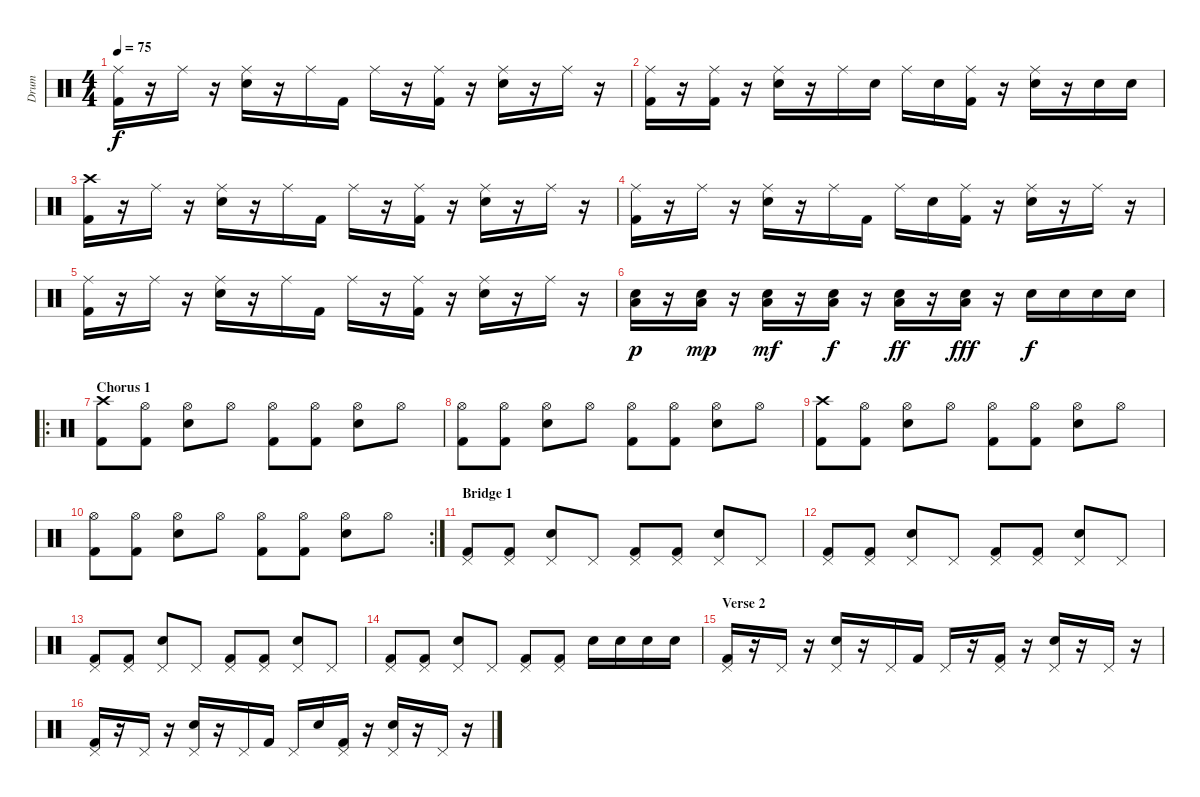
\track ("Drum" "Drum") {instrument percussion}
\staff {score}
\articulation defaults
\ts (4 4)
\tempo 75
\clef neutral
\ks c
("Ride (middle)" "Kick (hit) 2").16{dy f} r.16 "Ride (middle)".16 r.16 ("Ride (middle)" "Electric Snare (hit)").16 r.16 "Ride (middle)".16 "Kick (hit) 2".16 "Ride (middle)".16 r.16 ("Ride (middle)" "Kick (hit) 2").16 r.16 ("Ride (middle)" "Electric Snare (hit)").16 r.16 "Ride (middle)".16 r.16 |
("Ride (middle)" "Kick (hit) 2").16 r.16 ("Ride (middle)" "Kick (hit) 2").16 r.16 ("Ride (middle)" "Electric Snare (hit)").16 r.16 "Ride (middle)".16 "Electric Snare (hit)".16 "Ride (middle)".16 "Electric Snare (hit)".16 ("Ride (middle)" "Kick (hit) 2").16 r.16 ("Ride (middle)" "Electric Snare (hit)").16 r.16 "Electric Snare (hit)".16 "Electric Snare (hit)".16 |
("Crash high (hit)" "Kick (hit) 2").16 r.16 "Ride (middle)".16 r.16 ("Ride (middle)" "Electric Snare (hit)").16 r.16 "Ride (middle)".16 "Kick (hit) 2".16 "Ride (middle)".16 r.16 ("Ride (middle)" "Kick (hit) 2").16 r.16 ("Ride (middle)" "Electric Snare (hit)").16 r.16 "Ride (middle)".16 r.16 |
("Ride (middle)" "Kick (hit) 2").16 r.16 "Ride (middle)".16 r.16 ("Ride (middle)" "Electric Snare (hit)").16 r.16 "Ride (middle)".16 "Kick (hit) 2".16 "Ride (middle)".16 "Electric Snare (hit)".16 ("Ride (middle)" "Kick (hit) 2").16 r.16 ("Ride (middle)" "Electric Snare (hit)").16 r.16 "Ride (middle)".16 r.16 |
("Ride (middle)" "Kick (hit) 2").16 r.16 "Ride (middle)".16 r.16 ("Ride (middle)" "Electric Snare (hit)").16 r.16 "Ride (middle)".16 "Kick (hit) 2".16 "Ride (middle)".16 r.16 ("Ride (middle)" "Kick (hit) 2").16 r.16 ("Ride (middle)" "Electric Snare (hit)").16 r.16 "Ride (middle)".16 r.16 |
("Low Floor Tom (hit)" "Electric Snare (hit)").16{dy p} r.16 ("Low Floor Tom (hit)" "Electric Snare (hit)").16{dy mp} r.16 ("Low Floor Tom (hit)" "Electric Snare (hit)").16{dy mf} r.16 ("Low Floor Tom (hit)" "Electric Snare (hit)").16{dy f} r.16 ("Low Floor Tom (hit)" "Electric Snare (hit)").16{dy ff} r.16 ("Low Floor Tom (hit)" "Electric Snare (hit)").16{dy fff} r.16 "Electric Snare (hit)".16{dy f} "Electric Snare (hit)".16 "Electric Snare (hit)".16 "Electric Snare (hit)".16 |
\ro
\section ("" "Chorus 1")
("Crash high (hit)" "Kick (hit) 2").8 ("Hi-Hat (open)" "Kick (hit) 2").8 ("Hi-Hat (open)" "Electric Snare (hit)").8 "Hi-Hat (open)".8 ("Hi-Hat (open)" "Kick (hit) 2").8 ("Hi-Hat (open)" "Kick (hit) 2").8 ("Hi-Hat (open)" "Electric Snare (hit)").8 "Hi-Hat (open)".8 |
("Hi-Hat (open)" "Kick (hit) 2").8 ("Hi-Hat (open)" "Kick (hit) 2").8 ("Hi-Hat (open)" "Electric Snare (hit)").8 "Hi-Hat (open)".8 ("Hi-Hat (open)" "Kick (hit) 2").8 ("Hi-Hat (open)" "Kick (hit) 2").8 ("Hi-Hat (open)" "Electric Snare (hit)").8 "Hi-Hat (open)".8 |
("Crash high (hit)" "Kick (hit) 2").8 ("Hi-Hat (open)" "Kick (hit) 2").8 ("Hi-Hat (open)" "Electric Snare (hit)").8 "Hi-Hat (open)".8 ("Hi-Hat (open)" "Kick (hit) 2").8 ("Hi-Hat (open)" "Kick (hit) 2").8 ("Hi-Hat (open)" "Electric Snare (hit)").8 "Hi-Hat (open)".8 |
\rc 2
("Hi-Hat (open)" "Kick (hit) 2").8 ("Hi-Hat (open)" "Kick (hit) 2").8 ("Hi-Hat (open)" "Electric Snare (hit)").8 "Hi-Hat (open)".8 ("Hi-Hat (open)" "Kick (hit) 2").8 ("Hi-Hat (open)" "Kick (hit) 2").8 ("Hi-Hat (open)" "Electric Snare (hit)").8 "Hi-Hat (open)".8 |
\section ("" "Bridge 1")
("Pedal Hi-Hat (hit)" "Kick (hit) 2").8 ("Pedal Hi-Hat (hit)" "Kick (hit) 2").8 ("Pedal Hi-Hat (hit)" "Electric Snare (hit)").8 "Pedal Hi-Hat (hit)".8 ("Pedal Hi-Hat (hit)" "Kick (hit) 2").8 ("Pedal Hi-Hat (hit)" "Kick (hit) 2").8 ("Pedal Hi-Hat (hit)" "Electric Snare (hit)").8 "Pedal Hi-Hat (hit)".8 |
("Pedal Hi-Hat (hit)" "Kick (hit) 2").8 ("Pedal Hi-Hat (hit)" "Kick (hit) 2").8 ("Pedal Hi-Hat (hit)" "Electric Snare (hit)").8 "Pedal Hi-Hat (hit)".8 ("Pedal Hi-Hat (hit)" "Kick (hit) 2").8 ("Pedal Hi-Hat (hit)" "Kick (hit) 2").8 ("Pedal Hi-Hat (hit)" "Electric Snare (hit)").8 "Pedal Hi-Hat (hit)".8 |
("Pedal Hi-Hat (hit)" "Kick (hit) 2").8 ("Pedal Hi-Hat (hit)" "Kick (hit) 2").8 ("Pedal Hi-Hat (hit)" "Electric Snare (hit)").8 "Pedal Hi-Hat (hit)".8 ("Pedal Hi-Hat (hit)" "Kick (hit) 2").8 ("Pedal Hi-Hat (hit)" "Kick (hit) 2").8 ("Pedal Hi-Hat (hit)" "Electric Snare (hit)").8 "Pedal Hi-Hat (hit)".8 |
("Pedal Hi-Hat (hit)" "Kick (hit) 2").8 ("Pedal Hi-Hat (hit)" "Kick (hit) 2").8 ("Pedal Hi-Hat (hit)" "Electric Snare (hit)").8 "Pedal Hi-Hat (hit)".8 ("Pedal Hi-Hat (hit)" "Kick (hit) 2").8 ("Pedal Hi-Hat (hit)" "Kick (hit) 2").8 "Electric Snare (hit)".16 "Electric Snare (hit)".16 "Electric Snare (hit)".16 "Electric Snare (hit)".16 |
\section ("" "Verse 2")
("Pedal Hi-Hat (hit)" "Kick (hit) 2").16 r.16 "Pedal Hi-Hat (hit)".16 r.16 ("Pedal Hi-Hat (hit)" "Electric Snare (hit)").16 r.16 "Pedal Hi-Hat (hit)".16 "Kick (hit) 2".16 "Pedal Hi-Hat (hit)".16 r.16 ("Pedal Hi-Hat (hit)" "Kick (hit) 2").16 r.16 ("Pedal Hi-Hat (hit)" "Electric Snare (hit)").16 r.16 "Pedal Hi-Hat (hit)".16 r.16 |
("Pedal Hi-Hat (hit)" "Kick (hit) 2").16 r.16 "Pedal Hi-Hat (hit)".16 r.16 ("Pedal Hi-Hat (hit)" "Electric Snare (hit)").16 r.16 "Pedal Hi-Hat (hit)".16 "Kick (hit) 2".16 "Pedal Hi-Hat (hit)".16 "Electric Snare (hit)".16 ("Pedal Hi-Hat (hit)" "Kick (hit) 2").16 r.16 ("Pedal Hi-Hat (hit)" "Electric Snare (hit)").16 r.16 "Pedal Hi-Hat (hit)".16 r.16
